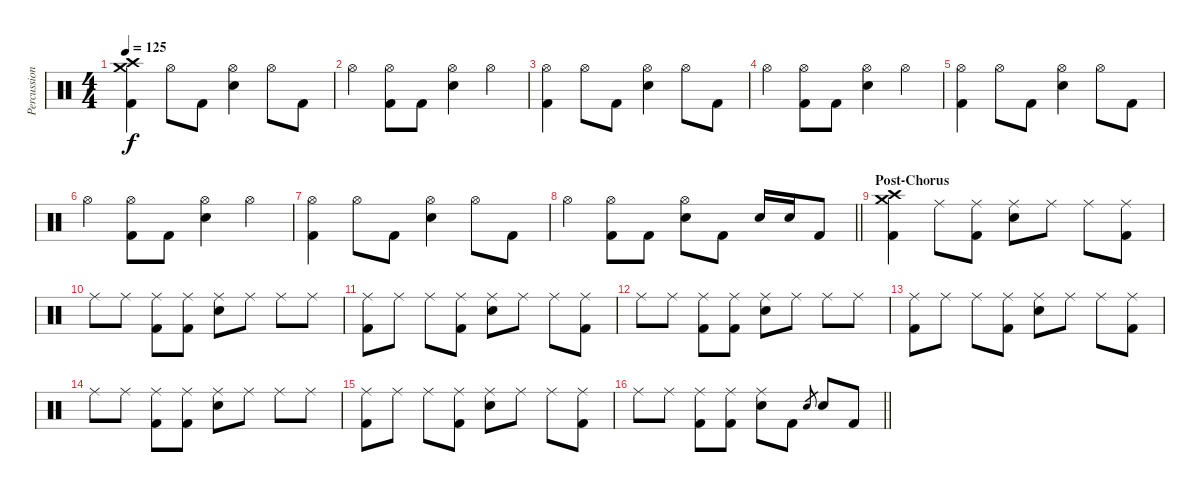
\track ("Percussion" "Percussion") {instrument percussion}
\staff {score}
\articulation defaults
\ts (4 4)
\tempo 125
\clef neutral
\ks c
("Crash high (hit)" "Crash medium (hit)" "Kick (hit) 2").4{dy f} "Hi-Hat (open)".8 "Kick (hit) 2".8 ("Hi-Hat (open)" "Electric Snare (hit)").4 "Hi-Hat (open)".8 "Kick (hit) 2".8 |
"Hi-Hat (open)".4 ("Hi-Hat (open)" "Kick (hit) 2").8 "Kick (hit) 2".8 ("Hi-Hat (open)" "Electric Snare (hit)").4 "Hi-Hat (open)".4 |
("Hi-Hat (open)" "Kick (hit) 2").4 "Hi-Hat (open)".8 "Kick (hit) 2".8 ("Hi-Hat (open)" "Electric Snare (hit)").4 "Hi-Hat (open)".8 "Kick (hit) 2".8 |
"Hi-Hat (open)".4 ("Hi-Hat (open)" "Kick (hit) 2").8 "Kick (hit) 2".8 ("Hi-Hat (open)" "Electric Snare (hit)").4 "Hi-Hat (open)".4 |
("Hi-Hat (open)" "Kick (hit) 2").4 "Hi-Hat (open)".8 "Kick (hit) 2".8 ("Hi-Hat (open)" "Electric Snare (hit)").4 "Hi-Hat (open)".8 "Kick (hit) 2".8 |
"Hi-Hat (open)".4 ("Hi-Hat (open)" "Kick (hit) 2").8 "Kick (hit) 2".8 ("Hi-Hat (open)" "Electric Snare (hit)").4 "Hi-Hat (open)".4 |
("Hi-Hat (open)" "Kick (hit) 2").4 "Hi-Hat (open)".8 "Kick (hit) 2".8 ("Hi-Hat (open)" "Electric Snare (hit)").4 "Hi-Hat (open)".8 "Kick (hit) 2".8 |
\barLineRight lightlight "Hi-Hat (open)".4
("Hi-Hat (open)" "Kick (hit) 2").8 "Kick (hit) 2".8 ("Hi-Hat (open)" "Electric Snare (hit)").8 "Kick (hit) 2".8 "Electric Snare (hit)".16 "Electric Snare (hit)".16 "Kick (hit) 2".8 |
\section ("" "Post-Chorus")
("Crash high (hit)" "Crash medium (hit)" "Kick (hit) 2").4 "Ride (middle)".8 ("Ride (middle)" "Kick (hit) 2").8 ("Ride (middle)" "Electric Snare (hit)").8 "Ride (middle)".8 "Ride (middle)".8 ("Ride (middle)" "Kick (hit) 2").8 |
"Ride (middle)".8 "Ride (middle)".8 ("Ride (middle)" "Kick (hit) 2").8 ("Ride (middle)" "Kick (hit) 2").8 ("Ride (middle)" "Electric Snare (hit)").8 "Ride (middle)".8 "Ride (middle)".8 "Ride (middle)".8 |
("Ride (middle)" "Kick (hit) 2").8 "Ride (middle)".8 "Ride (middle)".8 ("Ride (middle)" "Kick (hit) 2").8 ("Ride (middle)" "Electric Snare (hit)").8 "Ride (middle)".8 "Ride (middle)".8 ("Ride (middle)" "Kick (hit) 2").8 |
"Ride (middle)".8 "Ride (middle)".8 ("Ride (middle)" "Kick (hit) 2").8 ("Ride (middle)" "Kick (hit) 2").8 ("Ride (middle)" "Electric Snare (hit)").8 "Ride (middle)".8 "Ride (middle)".8 "Ride (middle)".8 |
("Ride (middle)" "Kick (hit) 2").8 "Ride (middle)".8 "Ride (middle)".8 ("Ride (middle)" "Kick (hit) 2").8 ("Ride (middle)" "Electric Snare (hit)").8 "Ride (middle)".8 "Ride (middle)".8 ("Ride (middle)" "Kick (hit) 2").8 |
"Ride (middle)".8 "Ride (middle)".8 ("Ride (middle)" "Kick (hit) 2").8 ("Ride (middle)" "Kick (hit) 2").8 ("Ride (middle)" "Electric Snare (hit)").8 "Ride (middle)".8 "Ride (middle)".8 "Ride (middle)".8 |
("Ride (middle)" "Kick (hit) 2").8 "Ride (middle)".8 "Ride (middle)".8 ("Ride (middle)" "Kick (hit) 2").8 ("Ride (middle)" "Electric Snare (hit)").8 "Ride (middle)".8 "Ride (middle)".8 ("Ride (middle)" "Kick (hit) 2").8 |
\barLineRight lightlight "Ride (middle)".8 "Ride (middle)".8
("Ride (middle)" "Kick (hit) 2").8 ("Ride (middle)" "Kick (hit) 2").8 ("Ride (middle)" "Electric Snare (hit)").8 "Kick (hit) 2".8 "Electric Snare (hit)".8{gr} "Electric Snare (hit)".8 "Kick (hit) 2".8
